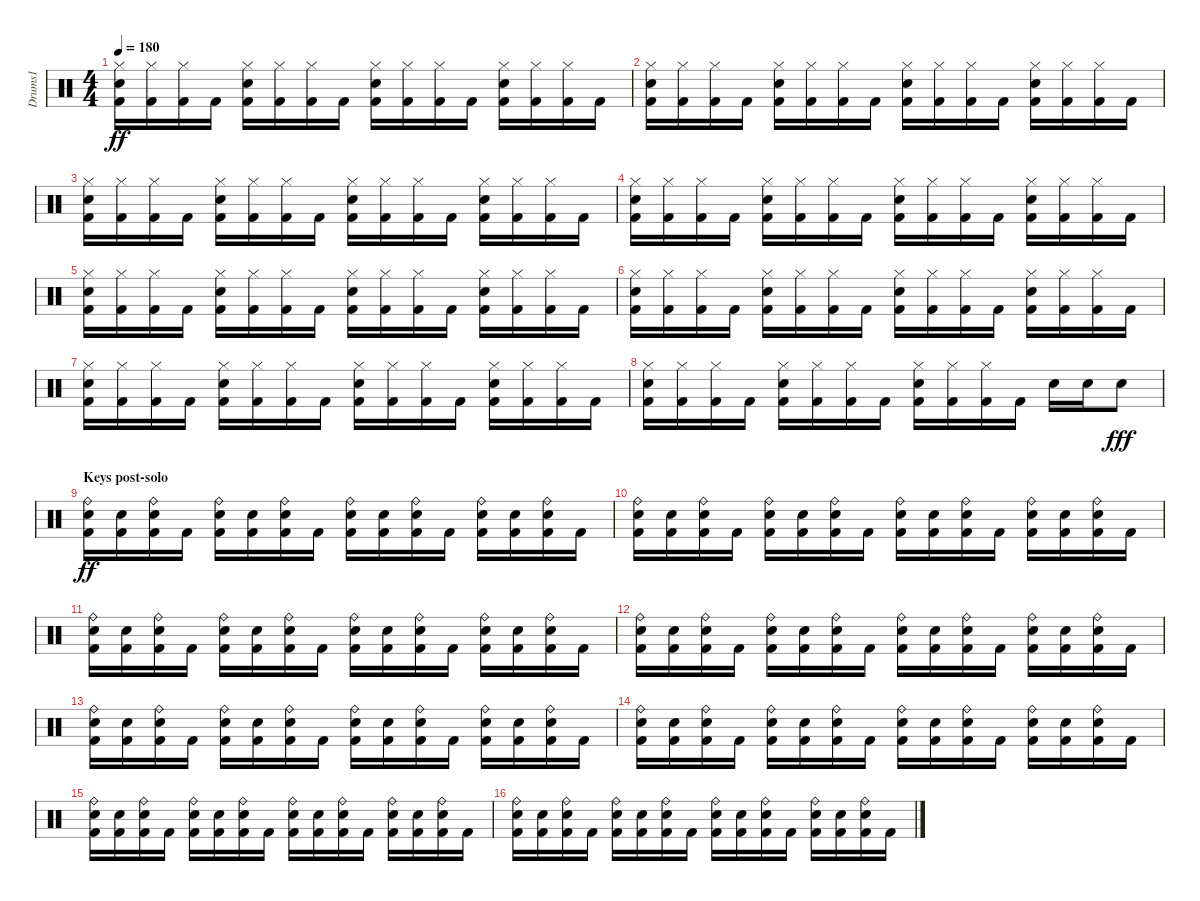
\track ("Drums1" "Drums1") {instrument percussion}
\staff {score}
\articulation defaults
\ts (4 4)
\tempo 180
\clef neutral
\ks c
("Hi-Hat (closed)" "Kick (hit) 2" "Electric Snare (hit)").16{dy ff} ("Hi-Hat (closed)" "Kick (hit) 2").16 ("Hi-Hat (closed)" "Kick (hit) 2").16 "Kick (hit) 2".16 ("Hi-Hat (closed)" "Kick (hit) 2" "Electric Snare (hit)").16 ("Hi-Hat (closed)" "Kick (hit) 2").16 ("Hi-Hat (closed)" "Kick (hit) 2").16 "Kick (hit) 2".16 ("Hi-Hat (closed)" "Kick (hit) 2" "Electric Snare (hit)").16 ("Hi-Hat (closed)" "Kick (hit) 2").16 ("Hi-Hat (closed)" "Kick (hit) 2").16 "Kick (hit) 2".16 ("Hi-Hat (closed)" "Kick (hit) 2" "Electric Snare (hit)").16 ("Hi-Hat (closed)" "Kick (hit) 2").16 ("Hi-Hat (closed)" "Kick (hit) 2").16 "Kick (hit) 2".16 |
("Hi-Hat (closed)" "Kick (hit) 2" "Electric Snare (hit)").16 ("Hi-Hat (closed)" "Kick (hit) 2").16 ("Hi-Hat (closed)" "Kick (hit) 2").16 "Kick (hit) 2".16 ("Hi-Hat (closed)" "Kick (hit) 2" "Electric Snare (hit)").16 ("Hi-Hat (closed)" "Kick (hit) 2").16 ("Hi-Hat (closed)" "Kick (hit) 2").16 "Kick (hit) 2".16 ("Hi-Hat (closed)" "Kick (hit) 2" "Electric Snare (hit)").16 ("Hi-Hat (closed)" "Kick (hit) 2").16 ("Hi-Hat (closed)" "Kick (hit) 2").16 "Kick (hit) 2".16 ("Hi-Hat (closed)" "Kick (hit) 2" "Electric Snare (hit)").16 ("Hi-Hat (closed)" "Kick (hit) 2").16 ("Hi-Hat (closed)" "Kick (hit) 2").16 "Kick (hit) 2".16 |
("Hi-Hat (closed)" "Kick (hit) 2" "Electric Snare (hit)").16 ("Hi-Hat (closed)" "Kick (hit) 2").16 ("Hi-Hat (closed)" "Kick (hit) 2").16 "Kick (hit) 2".16 ("Hi-Hat (closed)" "Kick (hit) 2" "Electric Snare (hit)").16 ("Hi-Hat (closed)" "Kick (hit) 2").16 ("Hi-Hat (closed)" "Kick (hit) 2").16 "Kick (hit) 2".16 ("Hi-Hat (closed)" "Kick (hit) 2" "Electric Snare (hit)").16 ("Hi-Hat (closed)" "Kick (hit) 2").16 ("Hi-Hat (closed)" "Kick (hit) 2").16 "Kick (hit) 2".16 ("Hi-Hat (closed)" "Kick (hit) 2" "Electric Snare (hit)").16 ("Hi-Hat (closed)" "Kick (hit) 2").16 ("Hi-Hat (closed)" "Kick (hit) 2").16 "Kick (hit) 2".16 |
("Hi-Hat (closed)" "Kick (hit) 2" "Electric Snare (hit)").16 ("Hi-Hat (closed)" "Kick (hit) 2").16 ("Hi-Hat (closed)" "Kick (hit) 2").16 "Kick (hit) 2".16 ("Hi-Hat (closed)" "Kick (hit) 2" "Electric Snare (hit)").16 ("Hi-Hat (closed)" "Kick (hit) 2").16 ("Hi-Hat (closed)" "Kick (hit) 2").16 "Kick (hit) 2".16 ("Hi-Hat (closed)" "Kick (hit) 2" "Electric Snare (hit)").16 ("Hi-Hat (closed)" "Kick (hit) 2").16 ("Hi-Hat (closed)" "Kick (hit) 2").16 "Kick (hit) 2".16 ("Hi-Hat (closed)" "Kick (hit) 2" "Electric Snare (hit)").16 ("Hi-Hat (closed)" "Kick (hit) 2").16 ("Hi-Hat (closed)" "Kick (hit) 2").16 "Kick (hit) 2".16 |
("Hi-Hat (closed)" "Kick (hit) 2" "Electric Snare (hit)").16 ("Hi-Hat (closed)" "Kick (hit) 2").16 ("Hi-Hat (closed)" "Kick (hit) 2").16 "Kick (hit) 2".16 ("Hi-Hat (closed)" "Kick (hit) 2" "Electric Snare (hit)").16 ("Hi-Hat (closed)" "Kick (hit) 2").16 ("Hi-Hat (closed)" "Kick (hit) 2").16 "Kick (hit) 2".16 ("Hi-Hat (closed)" "Kick (hit) 2" "Electric Snare (hit)").16 ("Hi-Hat (closed)" "Kick (hit) 2").16 ("Hi-Hat (closed)" "Kick (hit) 2").16 "Kick (hit) 2".16 ("Hi-Hat (closed)" "Kick (hit) 2" "Electric Snare (hit)").16 ("Hi-Hat (closed)" "Kick (hit) 2").16 ("Hi-Hat (closed)" "Kick (hit) 2").16 "Kick (hit) 2".16 |
("Hi-Hat (closed)" "Kick (hit) 2" "Electric Snare (hit)").16 ("Hi-Hat (closed)" "Kick (hit) 2").16 ("Hi-Hat (closed)" "Kick (hit) 2").16 "Kick (hit) 2".16 ("Hi-Hat (closed)" "Kick (hit) 2" "Electric Snare (hit)").16 ("Hi-Hat (closed)" "Kick (hit) 2").16 ("Hi-Hat (closed)" "Kick (hit) 2").16 "Kick (hit) 2".16 ("Hi-Hat (closed)" "Kick (hit) 2" "Electric Snare (hit)").16 ("Hi-Hat (closed)" "Kick (hit) 2").16 ("Hi-Hat (closed)" "Kick (hit) 2").16 "Kick (hit) 2".16 ("Hi-Hat (closed)" "Kick (hit) 2" "Electric Snare (hit)").16 ("Hi-Hat (closed)" "Kick (hit) 2").16 ("Hi-Hat (closed)" "Kick (hit) 2").16 "Kick (hit) 2".16 |
("Hi-Hat (closed)" "Kick (hit) 2" "Electric Snare (hit)").16 ("Hi-Hat (closed)" "Kick (hit) 2").16 ("Hi-Hat (closed)" "Kick (hit) 2").16 "Kick (hit) 2".16 ("Hi-Hat (closed)" "Kick (hit) 2" "Electric Snare (hit)").16 ("Hi-Hat (closed)" "Kick (hit) 2").16 ("Hi-Hat (closed)" "Kick (hit) 2").16 "Kick (hit) 2".16 ("Hi-Hat (closed)" "Kick (hit) 2" "Electric Snare (hit)").16 ("Hi-Hat (closed)" "Kick (hit) 2").16 ("Hi-Hat (closed)" "Kick (hit) 2").16 "Kick (hit) 2".16 ("Hi-Hat (closed)" "Kick (hit) 2" "Electric Snare (hit)").16 ("Hi-Hat (closed)" "Kick (hit) 2").16 ("Hi-Hat (closed)" "Kick (hit) 2").16 "Kick (hit) 2".16 |
("Hi-Hat (closed)" "Kick (hit) 2" "Electric Snare (hit)").16 ("Hi-Hat (closed)" "Kick (hit) 2").16 ("Hi-Hat (closed)" "Kick (hit) 2").16 "Kick (hit) 2".16 ("Hi-Hat (closed)" "Kick (hit) 2" "Electric Snare (hit)").16 ("Hi-Hat (closed)" "Kick (hit) 2").16 ("Hi-Hat (closed)" "Kick (hit) 2").16 "Kick (hit) 2".16 ("Hi-Hat (closed)" "Kick (hit) 2" "Electric Snare (hit)").16 ("Hi-Hat (closed)" "Kick (hit) 2").16 ("Hi-Hat (closed)" "Kick (hit) 2").16 "Kick (hit) 2".16 "Electric Snare (hit)".16 "Electric Snare (hit)".16 "Electric Snare (hit)".8{dy fff} |
\section ("" "Keys post-solo")
("Ride (bell)" "Electric Snare (hit)" "Kick (hit) 2").16{dy ff} ("Electric Snare (hit)" "Kick (hit) 2").16 ("Ride (bell)" "Electric Snare (hit)" "Kick (hit) 2").16 "Kick (hit) 2".16 ("Ride (bell)" "Electric Snare (hit)" "Kick (hit) 2").16 ("Electric Snare (hit)" "Kick (hit) 2").16 ("Ride (bell)" "Electric Snare (hit)" "Kick (hit) 2").16 "Kick (hit) 2".16 ("Ride (bell)" "Electric Snare (hit)" "Kick (hit) 2").16 ("Electric Snare (hit)" "Kick (hit) 2").16 ("Ride (bell)" "Electric Snare (hit)" "Kick (hit) 2").16 "Kick (hit) 2".16 ("Ride (bell)" "Electric Snare (hit)" "Kick (hit) 2").16 ("Electric Snare (hit)" "Kick (hit) 2").16 ("Ride (bell)" "Electric Snare (hit)" "Kick (hit) 2").16 "Kick (hit) 2".16 |
("Ride (bell)" "Electric Snare (hit)" "Kick (hit) 2").16 ("Electric Snare (hit)" "Kick (hit) 2").16 ("Ride (bell)" "Electric Snare (hit)" "Kick (hit) 2").16 "Kick (hit) 2".16 ("Ride (bell)" "Electric Snare (hit)" "Kick (hit) 2").16 ("Electric Snare (hit)" "Kick (hit) 2").16 ("Ride (bell)" "Electric Snare (hit)" "Kick (hit) 2").16 "Kick (hit) 2".16 ("Ride (bell)" "Electric Snare (hit)" "Kick (hit) 2").16 ("Electric Snare (hit)" "Kick (hit) 2").16 ("Ride (bell)" "Electric Snare (hit)" "Kick (hit) 2").16 "Kick (hit) 2".16 ("Ride (bell)" "Electric Snare (hit)" "Kick (hit) 2").16 ("Electric Snare (hit)" "Kick (hit) 2").16 ("Ride (bell)" "Electric Snare (hit)" "Kick (hit) 2").16 "Kick (hit) 2".16 |
("Ride (bell)" "Electric Snare (hit)" "Kick (hit) 2").16 ("Electric Snare (hit)" "Kick (hit) 2").16 ("Ride (bell)" "Electric Snare (hit)" "Kick (hit) 2").16 "Kick (hit) 2".16 ("Ride (bell)" "Electric Snare (hit)" "Kick (hit) 2").16 ("Electric Snare (hit)" "Kick (hit) 2").16 ("Ride (bell)" "Electric Snare (hit)" "Kick (hit) 2").16 "Kick (hit) 2".16 ("Ride (bell)" "Electric Snare (hit)" "Kick (hit) 2").16 ("Electric Snare (hit)" "Kick (hit) 2").16 ("Ride (bell)" "Electric Snare (hit)" "Kick (hit) 2").16 "Kick (hit) 2".16 ("Ride (bell)" "Electric Snare (hit)" "Kick (hit) 2").16 ("Electric Snare (hit)" "Kick (hit) 2").16 ("Ride (bell)" "Electric Snare (hit)" "Kick (hit) 2").16 "Kick (hit) 2".16 |
("Ride (bell)" "Electric Snare (hit)" "Kick (hit) 2").16 ("Electric Snare (hit)" "Kick (hit) 2").16 ("Ride (bell)" "Electric Snare (hit)" "Kick (hit) 2").16 "Kick (hit) 2".16 ("Ride (bell)" "Electric Snare (hit)" "Kick (hit) 2").16 ("Electric Snare (hit)" "Kick (hit) 2").16 ("Ride (bell)" "Electric Snare (hit)" "Kick (hit) 2").16 "Kick (hit) 2".16 ("Ride (bell)" "Electric Snare (hit)" "Kick (hit) 2").16 ("Electric Snare (hit)" "Kick (hit) 2").16 ("Ride (bell)" "Electric Snare (hit)" "Kick (hit) 2").16 "Kick (hit) 2".16 ("Ride (bell)" "Electric Snare (hit)" "Kick (hit) 2").16 ("Electric Snare (hit)" "Kick (hit) 2").16 ("Ride (bell)" "Electric Snare (hit)" "Kick (hit) 2").16 "Kick (hit) 2".16 |
("Ride (bell)" "Electric Snare (hit)" "Kick (hit) 2").16 ("Electric Snare (hit)" "Kick (hit) 2").16 ("Ride (bell)" "Electric Snare (hit)" "Kick (hit) 2").16 "Kick (hit) 2".16 ("Ride (bell)" "Electric Snare (hit)" "Kick (hit) 2").16 ("Electric Snare (hit)" "Kick (hit) 2").16 ("Ride (bell)" "Electric Snare (hit)" "Kick (hit) 2").16 "Kick (hit) 2".16 ("Ride (bell)" "Electric Snare (hit)" "Kick (hit) 2").16 ("Electric Snare (hit)" "Kick (hit) 2").16 ("Ride (bell)" "Electric Snare (hit)" "Kick (hit) 2").16 "Kick (hit) 2".16 ("Ride (bell)" "Electric Snare (hit)" "Kick (hit) 2").16 ("Electric Snare (hit)" "Kick (hit) 2").16 ("Ride (bell)" "Electric Snare (hit)" "Kick (hit) 2").16 "Kick (hit) 2".16 |
("Ride (bell)" "Electric Snare (hit)" "Kick (hit) 2").16 ("Electric Snare (hit)" "Kick (hit) 2").16 ("Ride (bell)" "Electric Snare (hit)" "Kick (hit) 2").16 "Kick (hit) 2".16 ("Ride (bell)" "Electric Snare (hit)" "Kick (hit) 2").16 ("Electric Snare (hit)" "Kick (hit) 2").16 ("Ride (bell)" "Electric Snare (hit)" "Kick (hit) 2").16 "Kick (hit) 2".16 ("Ride (bell)" "Electric Snare (hit)" "Kick (hit) 2").16 ("Electric Snare (hit)" "Kick (hit) 2").16 ("Ride (bell)" "Electric Snare (hit)" "Kick (hit) 2").16 "Kick (hit) 2".16 ("Ride (bell)" "Electric Snare (hit)" "Kick (hit) 2").16 ("Electric Snare (hit)" "Kick (hit) 2").16 ("Ride (bell)" "Electric Snare (hit)" "Kick (hit) 2").16 "Kick (hit) 2".16 |
("Ride (bell)" "Electric Snare (hit)" "Kick (hit) 2").16 ("Electric Snare (hit)" "Kick (hit) 2").16 ("Ride (bell)" "Electric Snare (hit)" "Kick (hit) 2").16 "Kick (hit) 2".16 ("Ride (bell)" "Electric Snare (hit)" "Kick (hit) 2").16 ("Electric Snare (hit)" "Kick (hit) 2").16 ("Ride (bell)" "Electric Snare (hit)" "Kick (hit) 2").16 "Kick (hit) 2".16 ("Ride (bell)" "Electric Snare (hit)" "Kick (hit) 2").16 ("Electric Snare (hit)" "Kick (hit) 2").16 ("Ride (bell)" "Electric Snare (hit)" "Kick (hit) 2").16 "Kick (hit) 2".16 ("Ride (bell)" "Electric Snare (hit)" "Kick (hit) 2").16 ("Electric Snare (hit)" "Kick (hit) 2").16 ("Ride (bell)" "Electric Snare (hit)" "Kick (hit) 2").16 "Kick (hit) 2".16 |
("Ride (bell)" "Electric Snare (hit)" "Kick (hit) 2").16 ("Electric Snare (hit)" "Kick (hit) 2").16 ("Ride (bell)" "Electric Snare (hit)" "Kick (hit) 2").16 "Kick (hit) 2".16 ("Ride (bell)" "Electric Snare (hit)" "Kick (hit) 2").16 ("Electric Snare (hit)" "Kick (hit) 2").16 ("Ride (bell)" "Electric Snare (hit)" "Kick (hit) 2").16 "Kick (hit) 2".16 ("Ride (bell)" "Electric Snare (hit)" "Kick (hit) 2").16 ("Electric Snare (hit)" "Kick (hit) 2").16 ("Ride (bell)" "Electric Snare (hit)" "Kick (hit) 2").16 "Kick (hit) 2".16 ("Ride (bell)" "Electric Snare (hit)" "Kick (hit) 2").16 ("Electric Snare (hit)" "Kick (hit) 2").16 ("Ride (bell)" "Electric Snare (hit)" "Kick (hit) 2").16 "Kick (hit) 2".16
